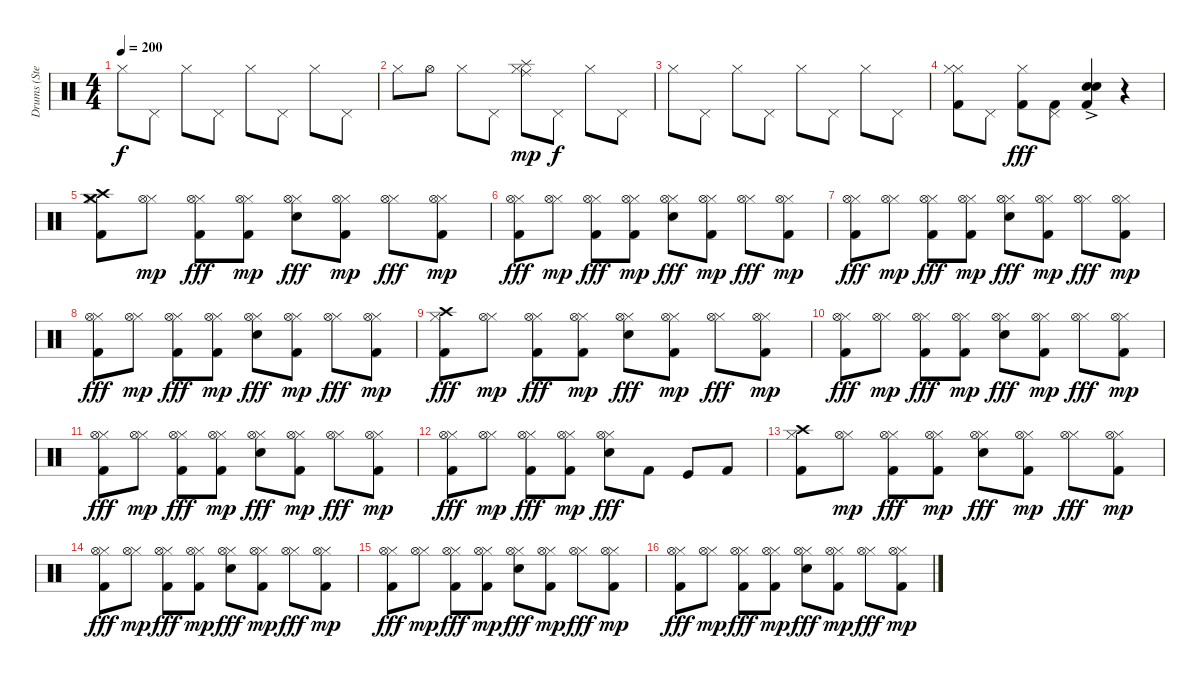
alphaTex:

\track ("Drums (Stevo32)" "Drums (Ste") {instrument percussion}
\staff {score}
\articulation defaults
\ts (4 4)
\tempo 200
\clef neutral
\ks c "Hi-Hat (closed)".8{dy f} "Pedal Hi-Hat (hit)".8 "Hi-Hat (closed)".8 "Pedal Hi-Hat (hit)".8 "Hi-Hat (closed)".8 "Pedal Hi-Hat (hit)".8 "Hi-Hat (closed)".8 "Pedal Hi-Hat (hit)".8
|
"Hi-Hat (closed)".8 "Hi-Hat (open)".8 "Hi-Hat (closed)".8 "Pedal Hi-Hat (hit)".8 ("Hi-Hat (closed)" "Ride (middle)" "Splash (hit)").8{dy mp} "Pedal Hi-Hat (hit)".8{dy f} "Hi-Hat (closed)".8 "Pedal Hi-Hat (hit)".8 |
"Hi-Hat (closed)".8 "Pedal Hi-Hat (hit)".8 "Hi-Hat (closed)".8 "Pedal Hi-Hat (hit)".8 "Hi-Hat (closed)".8 "Pedal Hi-Hat (hit)".8 "Hi-Hat (closed)".8 "Pedal Hi-Hat (hit)".8 |
("Kick (hit) 2" "Hi-Hat (closed)" "Hi-Hat (closed)").8 "Pedal Hi-Hat (hit)".8 ("Kick (hit) 2" "Hi-Hat (closed)").8{dy fff} ("Kick (hit) 2" "Pedal Hi-Hat (hit)").8 ("Kick (hit) 2" "Electric Snare (hit)" "Electric Snare (hit)"{ac}).4 r.4 |
("Kick (hit) 2" "Hi-Hat (closed)" "Crash high (hit)" "Crash medium (hit)").8 ("Hi-Hat (closed)" "Hi-Hat (open)").8{dy mp} ("Kick (hit) 2" "Hi-Hat (closed)" "Hi-Hat (open)").8{dy fff} ("Kick (hit) 2" "Hi-Hat (closed)" "Hi-Hat (open)").8{dy mp} ("Electric Snare (hit)" "Hi-Hat (closed)" "Hi-Hat (open)").8{dy fff} ("Kick (hit) 2" "Hi-Hat (closed)" "Hi-Hat (open)").8{dy mp} ("Hi-Hat (closed)" "Hi-Hat (open)").8{dy fff} ("Kick (hit) 2" "Hi-Hat (closed)" "Hi-Hat (open)").8{dy mp} |
("Kick (hit) 2" "Hi-Hat (closed)" "Hi-Hat (open)").8{dy fff} ("Hi-Hat (closed)" "Hi-Hat (open)").8{dy mp} ("Kick (hit) 2" "Hi-Hat (closed)" "Hi-Hat (open)").8{dy fff} ("Kick (hit) 2" "Hi-Hat (closed)" "Hi-Hat (open)").8{dy mp} ("Electric Snare (hit)" "Hi-Hat (closed)" "Hi-Hat (open)").8{dy fff} ("Kick (hit) 2" "Hi-Hat (closed)" "Hi-Hat (open)").8{dy mp} ("Hi-Hat (closed)" "Hi-Hat (open)").8{dy fff} ("Kick (hit) 2" "Hi-Hat (closed)" "Hi-Hat (open)").8{dy mp} |
("Kick (hit) 2" "Hi-Hat (closed)" "Hi-Hat (open)").8{dy fff} ("Hi-Hat (closed)" "Hi-Hat (open)").8{dy mp} ("Kick (hit) 2" "Hi-Hat (closed)" "Hi-Hat (open)").8{dy fff} ("Kick (hit) 2" "Hi-Hat (closed)" "Hi-Hat (open)").8{dy mp} ("Electric Snare (hit)" "Hi-Hat (closed)" "Hi-Hat (open)").8{dy fff} ("Kick (hit) 2" "Hi-Hat (closed)" "Hi-Hat (open)").8{dy mp} ("Hi-Hat (closed)" "Hi-Hat (open)").8{dy fff} ("Kick (hit) 2" "Hi-Hat (closed)" "Hi-Hat (open)").8{dy mp} |
("Kick (hit) 2" "Hi-Hat (closed)" "Hi-Hat (open)").8{dy fff} ("Hi-Hat (closed)" "Hi-Hat (open)").8{dy mp} ("Kick (hit) 2" "Hi-Hat (closed)" "Hi-Hat (open)").8{dy fff} ("Kick (hit) 2" "Hi-Hat (closed)" "Hi-Hat (open)").8{dy mp} ("Electric Snare (hit)" "Hi-Hat (closed)" "Hi-Hat (open)").8{dy fff} ("Kick (hit) 2" "Hi-Hat (closed)" "Hi-Hat (open)").8{dy mp} ("Hi-Hat (closed)" "Hi-Hat (open)").8{dy fff} ("Kick (hit) 2" "Hi-Hat (closed)" "Hi-Hat (open)").8{dy mp} |
("Kick (hit) 2" "Hi-Hat (closed)" "Crash high (hit)").8{dy fff} ("Hi-Hat (closed)" "Hi-Hat (open)").8{dy mp} ("Kick (hit) 2" "Hi-Hat (closed)" "Hi-Hat (open)").8{dy fff} ("Kick (hit) 2" "Hi-Hat (closed)" "Hi-Hat (open)").8{dy mp} ("Electric Snare (hit)" "Hi-Hat (closed)" "Hi-Hat (open)").8{dy fff} ("Kick (hit) 2" "Hi-Hat (closed)" "Hi-Hat (open)").8{dy mp} ("Hi-Hat (closed)" "Hi-Hat (open)").8{dy fff} ("Kick (hit) 2" "Hi-Hat (closed)" "Hi-Hat (open)").8{dy mp} |
("Kick (hit) 2" "Hi-Hat (closed)" "Hi-Hat (open)").8{dy fff} ("Hi-Hat (closed)" "Hi-Hat (open)").8{dy mp} ("Kick (hit) 2" "Hi-Hat (closed)" "Hi-Hat (open)").8{dy fff} ("Kick (hit) 2" "Hi-Hat (closed)" "Hi-Hat (open)").8{dy mp} ("Electric Snare (hit)" "Hi-Hat (closed)" "Hi-Hat (open)").8{dy fff} ("Kick (hit) 2" "Hi-Hat (closed)" "Hi-Hat (open)").8{dy mp} ("Hi-Hat (closed)" "Hi-Hat (open)").8{dy fff} ("Kick (hit) 2" "Hi-Hat (closed)" "Hi-Hat (open)").8{dy mp} |
("Kick (hit) 2" "Hi-Hat (closed)" "Hi-Hat (open)").8{dy fff} ("Hi-Hat (closed)" "Hi-Hat (open)").8{dy mp} ("Kick (hit) 2" "Hi-Hat (closed)" "Hi-Hat (open)").8{dy fff} ("Kick (hit) 2" "Hi-Hat (closed)" "Hi-Hat (open)").8{dy mp} ("Electric Snare (hit)" "Hi-Hat (closed)" "Hi-Hat (open)").8{dy fff} ("Kick (hit) 2" "Hi-Hat (closed)" "Hi-Hat (open)").8{dy mp} ("Hi-Hat (closed)" "Hi-Hat (open)").8{dy fff} ("Kick (hit) 2" "Hi-Hat (closed)" "Hi-Hat (open)").8{dy mp} |
("Kick (hit) 2" "Hi-Hat (closed)" "Hi-Hat (open)").8{dy fff} ("Hi-Hat (closed)" "Hi-Hat (open)").8{dy mp} ("Kick (hit) 2" "Hi-Hat (closed)" "Hi-Hat (open)").8{dy fff} ("Kick (hit) 2" "Hi-Hat (closed)" "Hi-Hat (open)").8{dy mp} ("Electric Snare (hit)" "Hi-Hat (closed)" "Hi-Hat (open)").8{dy fff} "Kick (hit) 2".8 "Kick (hit)".8 "Kick (hit) 2".8 |
("Kick (hit) 2" "Hi-Hat (closed)" "Crash high (hit)").8 ("Hi-Hat (closed)" "Hi-Hat (open)").8{dy mp} ("Kick (hit) 2" "Hi-Hat (closed)" "Hi-Hat (open)").8{dy fff} ("Kick (hit) 2" "Hi-Hat (closed)" "Hi-Hat (open)").8{dy mp} ("Electric Snare (hit)" "Hi-Hat (closed)" "Hi-Hat (open)").8{dy fff} ("Kick (hit) 2" "Hi-Hat (closed)" "Hi-Hat (open)").8{dy mp} ("Hi-Hat (closed)" "Hi-Hat (open)").8{dy fff} ("Kick (hit) 2" "Hi-Hat (closed)" "Hi-Hat (open)").8{dy mp} |
("Kick (hit) 2" "Hi-Hat (closed)" "Hi-Hat (open)").8{dy fff} ("Hi-Hat (closed)" "Hi-Hat (open)").8{dy mp} ("Kick (hit) 2" "Hi-Hat (closed)" "Hi-Hat (open)").8{dy fff} ("Kick (hit) 2" "Hi-Hat (closed)" "Hi-Hat (open)").8{dy mp} ("Electric Snare (hit)" "Hi-Hat (closed)" "Hi-Hat (open)").8{dy fff} ("Kick (hit) 2" "Hi-Hat (closed)" "Hi-Hat (open)").8{dy mp} ("Hi-Hat (closed)" "Hi-Hat (open)").8{dy fff} ("Kick (hit) 2" "Hi-Hat (closed)" "Hi-Hat (open)").8{dy mp} |
("Kick (hit) 2" "Hi-Hat (closed)" "Hi-Hat (open)").8{dy fff} ("Hi-Hat (closed)" "Hi-Hat (open)").8{dy mp} ("Kick (hit) 2" "Hi-Hat (closed)" "Hi-Hat (open)").8{dy fff} ("Kick (hit) 2" "Hi-Hat (closed)" "Hi-Hat (open)").8{dy mp} ("Electric Snare (hit)" "Hi-Hat (closed)" "Hi-Hat (open)").8{dy fff} ("Kick (hit) 2" "Hi-Hat (closed)" "Hi-Hat (open)").8{dy mp} ("Hi-Hat (closed)" "Hi-Hat (open)").8{dy fff} ("Kick (hit) 2" "Hi-Hat (closed)" "Hi-Hat (open)").8{dy mp} |
("Kick (hit) 2" "Hi-Hat (closed)" "Hi-Hat (open)").8{dy fff} ("Hi-Hat (closed)" "Hi-Hat (open)").8{dy mp} ("Kick (hit) 2" "Hi-Hat (closed)" "Hi-Hat (open)").8{dy fff} ("Kick (hit) 2" "Hi-Hat (closed)" "Hi-Hat (open)").8{dy mp} ("Electric Snare (hit)" "Hi-Hat (closed)" "Hi-Hat (open)").8{dy fff} ("Kick (hit) 2" "Hi-Hat (closed)" "Hi-Hat (open)").8{dy mp} ("Hi-Hat (closed)" "Hi-Hat (open)").8{dy fff} ("Kick (hit) 2" "Hi-Hat (closed)" "Hi-Hat (open)").8{dy mp}
